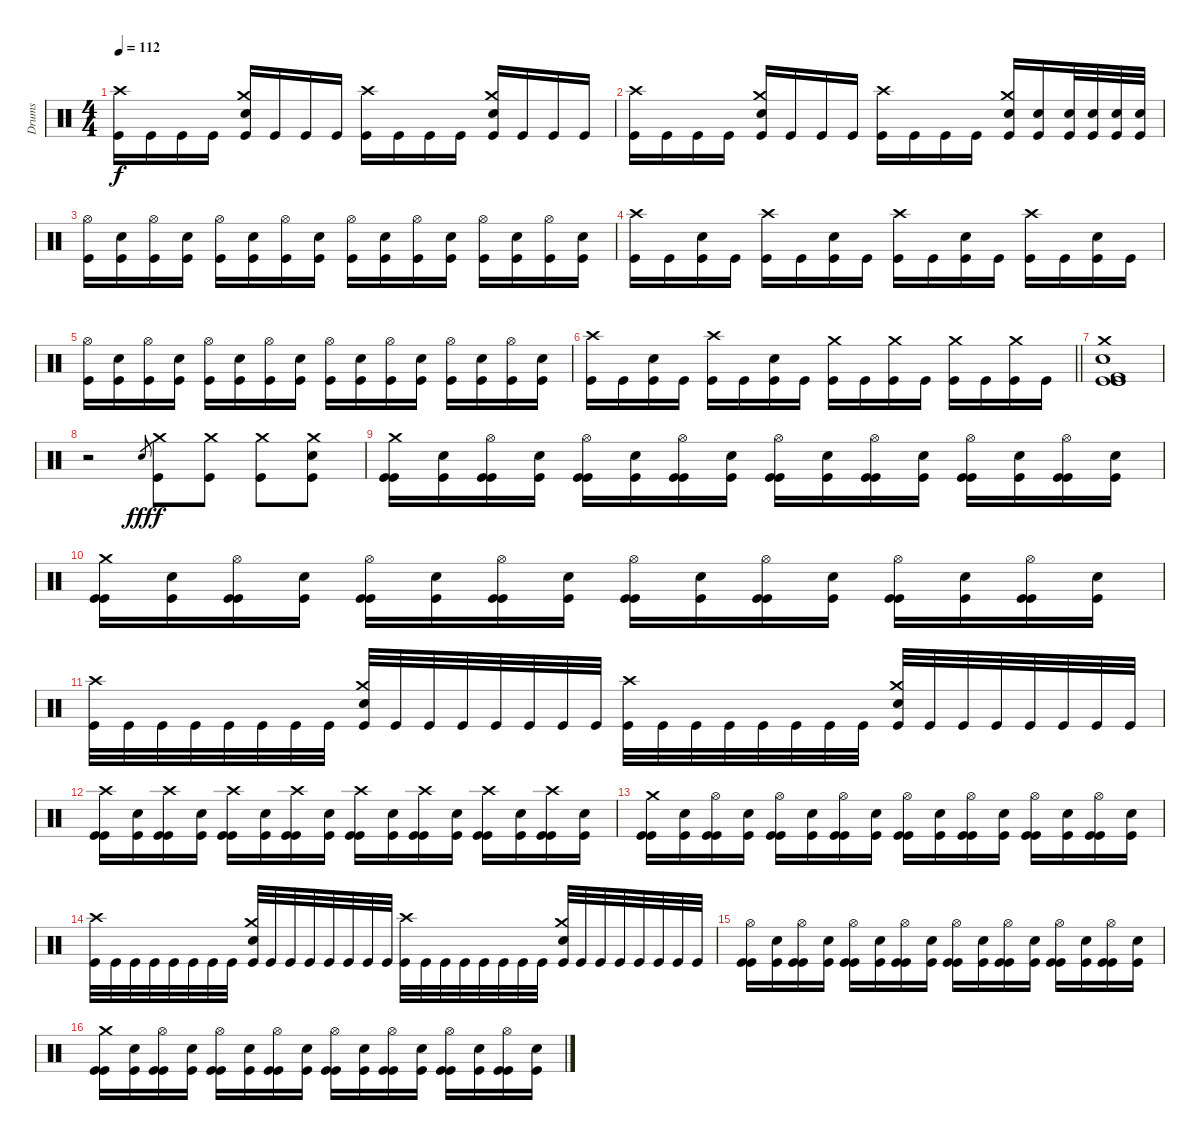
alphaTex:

\track ("Drums" "Drums") {instrument percussion}
\staff
\articulation defaults
\ts (4 4)
\tempo 112
\clef neutral
\ks c
("Crash high (hit)" "Kick (hit)").16{dy f} "Kick (hit)".16 "Kick (hit)".16 "Kick (hit)".16 ("Crash medium (hit)" "Electric Snare (hit)" "Kick (hit)").16 "Kick (hit)".16 "Kick (hit)".16 "Kick (hit)".16 ("Crash high (hit)" "Kick (hit)").16 "Kick (hit)".16 "Kick (hit)".16 "Kick (hit)".16 ("Crash medium (hit)" "Electric Snare (hit)" "Kick (hit)").16 "Kick (hit)".16 "Kick (hit)".16 "Kick (hit)".16 |
("Crash high (hit)" "Kick (hit)").16 "Kick (hit)".16 "Kick (hit)".16 "Kick (hit)".16 ("Crash medium (hit)" "Electric Snare (hit)" "Kick (hit)").16 "Kick (hit)".16 "Kick (hit)".16 "Kick (hit)".16 ("Crash high (hit)" "Kick (hit)").16 "Kick (hit)".16 "Kick (hit)".16 "Kick (hit)".16 ("Crash medium (hit)" "Electric Snare (hit)" "Kick (hit)").16 ("Electric Snare (hit)" "Kick (hit)").16 ("Electric Snare (hit)" "Kick (hit)").32 ("Electric Snare (hit)" "Kick (hit)").32 ("Electric Snare (hit)" "Kick (hit)").32 ("Electric Snare (hit)" "Kick (hit)").32 |
("Hi-Hat (open)" "Kick (hit)").16 ("Electric Snare (hit)" "Kick (hit)").16 ("Hi-Hat (open)" "Kick (hit)").16 ("Electric Snare (hit)" "Kick (hit)").16 ("Hi-Hat (open)" "Kick (hit)").16 ("Electric Snare (hit)" "Kick (hit)").16 ("Hi-Hat (open)" "Kick (hit)").16 ("Electric Snare (hit)" "Kick (hit)").16 ("Hi-Hat (open)" "Kick (hit)").16 ("Electric Snare (hit)" "Kick (hit)").16 ("Hi-Hat (open)" "Kick (hit)").16 ("Electric Snare (hit)" "Kick (hit)").16 ("Hi-Hat (open)" "Kick (hit)").16 ("Electric Snare (hit)" "Kick (hit)").16 ("Hi-Hat (open)" "Kick (hit)").16 ("Electric Snare (hit)" "Kick (hit)").16 |
("Crash high (hit)" "Kick (hit)").16 "Kick (hit)".16 ("Electric Snare (hit)" "Kick (hit)").16 "Kick (hit)".16 ("Crash high (hit)" "Kick (hit)").16 "Kick (hit)".16 ("Electric Snare (hit)" "Kick (hit)").16 "Kick (hit)".16 ("Crash high (hit)" "Kick (hit)").16 "Kick (hit)".16 ("Electric Snare (hit)" "Kick (hit)").16 "Kick (hit)".16 ("Crash high (hit)" "Kick (hit)").16 "Kick (hit)".16 ("Electric Snare (hit)" "Kick (hit)").16 "Kick (hit)".16 |
("Hi-Hat (open)" "Kick (hit)").16 ("Electric Snare (hit)" "Kick (hit)").16 ("Hi-Hat (open)" "Kick (hit)").16 ("Electric Snare (hit)" "Kick (hit)").16 ("Hi-Hat (open)" "Kick (hit)").16 ("Electric Snare (hit)" "Kick (hit)").16 ("Hi-Hat (open)" "Kick (hit)").16 ("Electric Snare (hit)" "Kick (hit)").16 ("Hi-Hat (open)" "Kick (hit)").16 ("Electric Snare (hit)" "Kick (hit)").16 ("Hi-Hat (open)" "Kick (hit)").16 ("Electric Snare (hit)" "Kick (hit)").16 ("Hi-Hat (open)" "Kick (hit)").16 ("Electric Snare (hit)" "Kick (hit)").16 ("Hi-Hat (open)" "Kick (hit)").16 ("Electric Snare (hit)" "Kick (hit)").16 |
\barLineRight lightlight
("Crash high (hit)" "Kick (hit)").16 "Kick (hit)".16 ("Electric Snare (hit)" "Kick (hit)").16 "Kick (hit)".16 ("Crash high (hit)" "Kick (hit)").16 "Kick (hit)".16 ("Electric Snare (hit)" "Kick (hit)").16 "Kick (hit)".16 ("Crash medium (hit)" "Kick (hit)").16 "Kick (hit)".16 ("Crash medium (hit)" "Kick (hit)").16 "Kick (hit)".16 ("Crash medium (hit)" "Kick (hit)").16 "Kick (hit)".16 ("Crash medium (hit)" "Kick (hit)").16 "Kick (hit)".16 |
\section ("" "")
("Kick (hit)" "Kick (hit)" "Crash medium (hit)" "Kick (hit) 2" "Electric Snare (hit)" "Kick (hit)").1 |
r.2 "Electric Snare (hit)".8{gr dy fff} ("Crash medium (hit)" "Kick (hit)").8{dy f} ("Crash medium (hit)" "Kick (hit)").8 ("Crash medium (hit)" "Kick (hit)").8 ("Crash medium (hit)" "Electric Snare (hit)" "Kick (hit)").8 |
("Crash medium (hit)" "Kick (hit)" "Kick (hit)").16 ("Electric Snare (hit)" "Kick (hit)").16 ("Hi-Hat (open)" "Kick (hit)" "Kick (hit)").16 ("Electric Snare (hit)" "Kick (hit)").16 ("Hi-Hat (open)" "Kick (hit)" "Kick (hit)").16 ("Electric Snare (hit)" "Kick (hit)").16 ("Hi-Hat (open)" "Kick (hit)" "Kick (hit)").16 ("Electric Snare (hit)" "Kick (hit)").16 ("Hi-Hat (open)" "Kick (hit)" "Kick (hit)").16 ("Electric Snare (hit)" "Kick (hit)").16 ("Hi-Hat (open)" "Kick (hit)" "Kick (hit)").16 ("Electric Snare (hit)" "Kick (hit)").16 ("Hi-Hat (open)" "Kick (hit)" "Kick (hit)").16 ("Electric Snare (hit)" "Kick (hit)").16 ("Hi-Hat (open)" "Kick (hit)" "Kick (hit)").16 ("Electric Snare (hit)" "Kick (hit)").16 |
("Crash medium (hit)" "Kick (hit)" "Kick (hit)").16 ("Electric Snare (hit)" "Kick (hit)").16 ("Hi-Hat (open)" "Kick (hit)" "Kick (hit)").16 ("Electric Snare (hit)" "Kick (hit)").16 ("Hi-Hat (open)" "Kick (hit)" "Kick (hit)").16 ("Electric Snare (hit)" "Kick (hit)").16 ("Hi-Hat (open)" "Kick (hit)" "Kick (hit)").16 ("Electric Snare (hit)" "Kick (hit)").16 ("Hi-Hat (open)" "Kick (hit)" "Kick (hit)").16 ("Electric Snare (hit)" "Kick (hit)").16 ("Hi-Hat (open)" "Kick (hit)" "Kick (hit)").16 ("Electric Snare (hit)" "Kick (hit)").16 ("Hi-Hat (open)" "Kick (hit)" "Kick (hit)").16 ("Electric Snare (hit)" "Kick (hit)").16 ("Hi-Hat (open)" "Kick (hit)" "Kick (hit)").16 ("Electric Snare (hit)" "Kick (hit)").16 |
("Crash high (hit)" "Kick (hit)").32 "Kick (hit)".32 "Kick (hit)".32 "Kick (hit)".32 "Kick (hit)".32 "Kick (hit)".32 "Kick (hit)".32 "Kick (hit)".32 ("Crash medium (hit)" "Electric Snare (hit)" "Kick (hit)").32 "Kick (hit)".32 "Kick (hit)".32 "Kick (hit)".32 "Kick (hit)".32 "Kick (hit)".32 "Kick (hit)".32 "Kick (hit)".32 ("Crash high (hit)" "Kick (hit)").32 "Kick (hit)".32 "Kick (hit)".32 "Kick (hit)".32 "Kick (hit)".32 "Kick (hit)".32 "Kick (hit)".32 "Kick (hit)".32 ("Crash medium (hit)" "Electric Snare (hit)" "Kick (hit)").32 "Kick (hit)".32 "Kick (hit)".32 "Kick (hit)".32 "Kick (hit)".32 "Kick (hit)".32 "Kick (hit)".32 "Kick (hit)".32 |
("Crash high (hit)" "Kick (hit)" "Kick (hit)").16 ("Electric Snare (hit)" "Kick (hit)").16 ("Crash high (hit)" "Kick (hit)" "Kick (hit)").16 ("Electric Snare (hit)" "Kick (hit)").16 ("Crash high (hit)" "Kick (hit)" "Kick (hit)").16 ("Electric Snare (hit)" "Kick (hit)").16 ("Crash high (hit)" "Kick (hit)" "Kick (hit)").16 ("Electric Snare (hit)" "Kick (hit)").16 ("Crash high (hit)" "Kick (hit)" "Kick (hit)").16 ("Electric Snare (hit)" "Kick (hit)").16 ("Crash high (hit)" "Kick (hit)" "Kick (hit)").16 ("Electric Snare (hit)" "Kick (hit)").16 ("Crash high (hit)" "Kick (hit)" "Kick (hit)").16 ("Electric Snare (hit)" "Kick (hit)").16 ("Crash high (hit)" "Kick (hit)" "Kick (hit)").16 ("Electric Snare (hit)" "Kick (hit)").16 |
("Crash medium (hit)" "Kick (hit)" "Kick (hit)").16 ("Electric Snare (hit)" "Kick (hit)").16 ("Hi-Hat (open)" "Kick (hit)" "Kick (hit)").16 ("Electric Snare (hit)" "Kick (hit)").16 ("Hi-Hat (open)" "Kick (hit)" "Kick (hit)").16 ("Electric Snare (hit)" "Kick (hit)").16 ("Hi-Hat (open)" "Kick (hit)" "Kick (hit)").16 ("Electric Snare (hit)" "Kick (hit)").16 ("Hi-Hat (open)" "Kick (hit)" "Kick (hit)").16 ("Electric Snare (hit)" "Kick (hit)").16 ("Hi-Hat (open)" "Kick (hit)" "Kick (hit)").16 ("Electric Snare (hit)" "Kick (hit)").16 ("Hi-Hat (open)" "Kick (hit)" "Kick (hit)").16 ("Electric Snare (hit)" "Kick (hit)").16 ("Hi-Hat (open)" "Kick (hit)" "Kick (hit)").16 ("Electric Snare (hit)" "Kick (hit)").16 |
("Crash high (hit)" "Kick (hit)").32 "Kick (hit)".32 "Kick (hit)".32 "Kick (hit)".32 "Kick (hit)".32 "Kick (hit)".32 "Kick (hit)".32 "Kick (hit)".32 ("Crash medium (hit)" "Electric Snare (hit)" "Kick (hit)").32 "Kick (hit)".32 "Kick (hit)".32 "Kick (hit)".32 "Kick (hit)".32 "Kick (hit)".32 "Kick (hit)".32 "Kick (hit)".32 ("Crash high (hit)" "Kick (hit)").32 "Kick (hit)".32 "Kick (hit)".32 "Kick (hit)".32 "Kick (hit)".32 "Kick (hit)".32 "Kick (hit)".32 "Kick (hit)".32 ("Crash medium (hit)" "Electric Snare (hit)" "Kick (hit)").32 "Kick (hit)".32 "Kick (hit)".32 "Kick (hit)".32 "Kick (hit)".32 "Kick (hit)".32 "Kick (hit)".32 "Kick (hit)".32 |
("Hi-Hat (open)" "Kick (hit)" "Kick (hit)").16 ("Electric Snare (hit)" "Kick (hit)").16 ("Hi-Hat (open)" "Kick (hit)" "Kick (hit)").16 ("Electric Snare (hit)" "Kick (hit)").16 ("Hi-Hat (open)" "Kick (hit)" "Kick (hit)").16 ("Electric Snare (hit)" "Kick (hit)").16 ("Hi-Hat (open)" "Kick (hit)" "Kick (hit)").16 ("Electric Snare (hit)" "Kick (hit)").16 ("Hi-Hat (open)" "Kick (hit)" "Kick (hit)").16 ("Electric Snare (hit)" "Kick (hit)").16 ("Hi-Hat (open)" "Kick (hit)" "Kick (hit)").16 ("Electric Snare (hit)" "Kick (hit)").16 ("Hi-Hat (open)" "Kick (hit)" "Kick (hit)").16 ("Electric Snare (hit)" "Kick (hit)").16 ("Hi-Hat (open)" "Kick (hit)" "Kick (hit)").16 ("Electric Snare (hit)" "Kick (hit)").16 |
("Crash medium (hit)" "Kick (hit)" "Kick (hit)").16 ("Electric Snare (hit)" "Kick (hit)").16 ("Hi-Hat (open)" "Kick (hit)" "Kick (hit)").16 ("Electric Snare (hit)" "Kick (hit)").16 ("Hi-Hat (open)" "Kick (hit)" "Kick (hit)").16 ("Electric Snare (hit)" "Kick (hit)").16 ("Hi-Hat (open)" "Kick (hit)" "Kick (hit)").16 ("Electric Snare (hit)" "Kick (hit)").16 ("Hi-Hat (open)" "Kick (hit)" "Kick (hit)").16 ("Electric Snare (hit)" "Kick (hit)").16 ("Hi-Hat (open)" "Kick (hit)" "Kick (hit)").16 ("Electric Snare (hit)" "Kick (hit)").16 ("Hi-Hat (open)" "Kick (hit)" "Kick (hit)").16 ("Electric Snare (hit)" "Kick (hit)").16 ("Hi-Hat (open)" "Kick (hit)" "Kick (hit)").16 ("Electric Snare (hit)" "Kick (hit)").16
